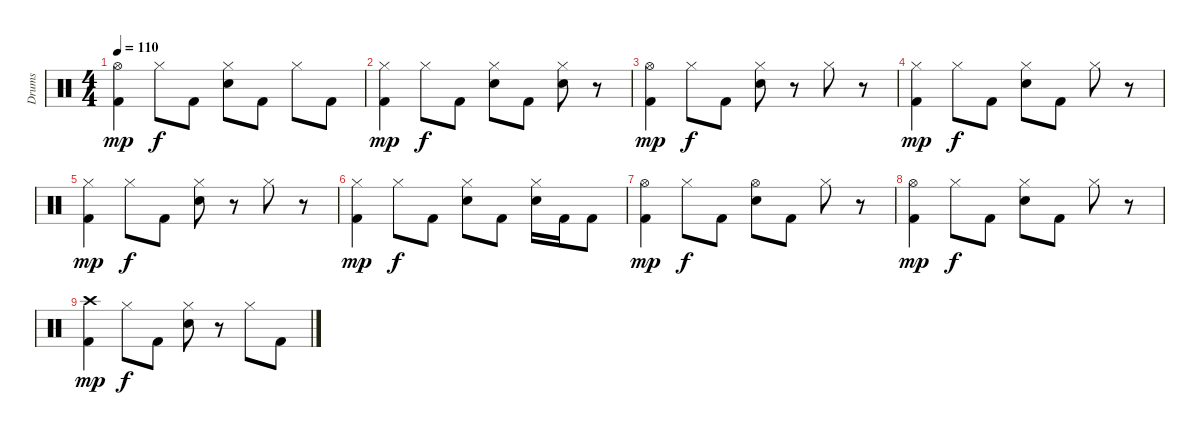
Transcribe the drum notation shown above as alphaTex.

\track ("Drums" "Drums") {instrument percussion}
\staff {score}
\articulation defaults
\ts (4 4)
\tempo 110
\clef neutral
\ks c
("Hi-Hat (open)" "Kick (hit) 2").4{dy mp} "Hi-Hat (closed)".8{dy f} "Kick (hit) 2".8 ("Hi-Hat (closed)" "Snare (hit) 2").8 "Kick (hit) 2".8 "Hi-Hat (closed)".8 "Kick (hit) 2".8 |
("Hi-Hat (closed)" "Kick (hit) 2").4{dy mp} "Hi-Hat (closed)".8{dy f} "Kick (hit) 2".8 ("Hi-Hat (closed)" "Snare (hit) 2").8 "Kick (hit) 2".8 ("Hi-Hat (closed)" "Snare (hit) 2").8 r.8 |
("Hi-Hat (open)" "Kick (hit) 2").4{dy mp} "Hi-Hat (closed)".8{dy f} "Kick (hit) 2".8 ("Hi-Hat (closed)" "Snare (hit) 2").8 r.8 "Hi-Hat (closed)".8 r.8 |
("Hi-Hat (closed)" "Kick (hit) 2").4{dy mp} "Hi-Hat (closed)".8{dy f} "Kick (hit) 2".8 ("Hi-Hat (closed)" "Snare (hit) 2").8 "Kick (hit) 2".8 "Hi-Hat (closed)".8 r.8 |
("Hi-Hat (closed)" "Kick (hit) 2").4{dy mp} "Hi-Hat (closed)".8{dy f} "Kick (hit) 2".8 ("Hi-Hat (closed)" "Snare (hit) 2").8 r.8 "Hi-Hat (closed)".8 r.8 |
("Hi-Hat (closed)" "Kick (hit) 2").4{dy mp} "Hi-Hat (closed)".8{dy f} "Kick (hit) 2".8 ("Hi-Hat (closed)" "Snare (hit) 2").8 "Kick (hit) 2".8 ("Hi-Hat (closed)" "Snare (hit) 2").16 "Kick (hit) 2".16 "Kick (hit) 2".8 |
("Hi-Hat (open)" "Kick (hit) 2").4{dy mp} "Hi-Hat (closed)".8{dy f} "Kick (hit) 2".8 ("Hi-Hat (open)" "Snare (hit) 2").8 "Kick (hit) 2".8 "Hi-Hat (closed)".8 r.8 |
("Hi-Hat (open)" "Kick (hit) 2").4{dy mp} "Hi-Hat (closed)".8{dy f} "Kick (hit) 2".8 ("Hi-Hat (closed)" "Snare (hit) 2").8 "Kick (hit) 2".8 "Hi-Hat (closed)".8 r.8 |
("Crash high (hit)" "Kick (hit) 2").4{dy mp} "Hi-Hat (closed)".8{dy f} "Kick (hit) 2".8 ("Hi-Hat (closed)" "Snare (hit) 2").8 r.8 "Hi-Hat (closed)".8 "Kick (hit) 2".8
